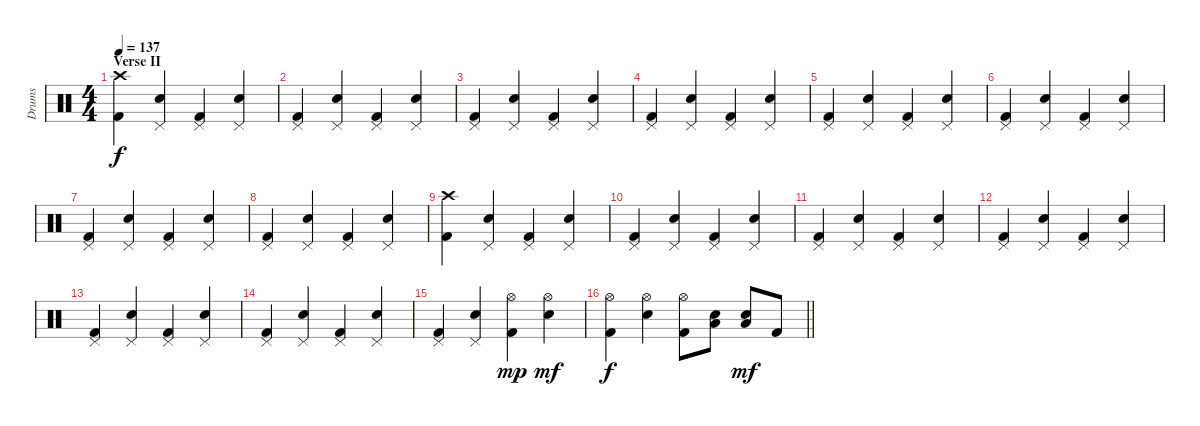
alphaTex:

\track ("Drums" "Drums") {instrument percussion}
\staff {score}
\articulation defaults
\ts (4 4)
\section ("" "Verse II")
\tempo 137
\clef neutral
\ks c
("Crash high (hit)" "Kick (hit) 2").4{dy f} ("Pedal Hi-Hat (hit)" "Electric Snare (hit)").4 ("Pedal Hi-Hat (hit)" "Kick (hit) 2").4 ("Pedal Hi-Hat (hit)" "Electric Snare (hit)").4 |
("Pedal Hi-Hat (hit)" "Kick (hit) 2").4 ("Pedal Hi-Hat (hit)" "Electric Snare (hit)").4 ("Pedal Hi-Hat (hit)" "Kick (hit) 2").4 ("Pedal Hi-Hat (hit)" "Electric Snare (hit)").4 |
("Pedal Hi-Hat (hit)" "Kick (hit) 2").4 ("Pedal Hi-Hat (hit)" "Electric Snare (hit)").4 ("Pedal Hi-Hat (hit)" "Kick (hit) 2").4 ("Pedal Hi-Hat (hit)" "Electric Snare (hit)").4 |
("Pedal Hi-Hat (hit)" "Kick (hit) 2").4 ("Pedal Hi-Hat (hit)" "Electric Snare (hit)").4 ("Pedal Hi-Hat (hit)" "Kick (hit) 2").4 ("Pedal Hi-Hat (hit)" "Electric Snare (hit)").4 |
("Pedal Hi-Hat (hit)" "Kick (hit) 2").4 ("Pedal Hi-Hat (hit)" "Electric Snare (hit)").4 ("Pedal Hi-Hat (hit)" "Kick (hit) 2").4 ("Pedal Hi-Hat (hit)" "Electric Snare (hit)").4 |
("Pedal Hi-Hat (hit)" "Kick (hit) 2").4 ("Pedal Hi-Hat (hit)" "Electric Snare (hit)").4 ("Pedal Hi-Hat (hit)" "Kick (hit) 2").4 ("Pedal Hi-Hat (hit)" "Electric Snare (hit)").4 |
("Pedal Hi-Hat (hit)" "Kick (hit) 2").4 ("Pedal Hi-Hat (hit)" "Electric Snare (hit)").4 ("Pedal Hi-Hat (hit)" "Kick (hit) 2").4 ("Pedal Hi-Hat (hit)" "Electric Snare (hit)").4 |
("Pedal Hi-Hat (hit)" "Kick (hit) 2").4 ("Pedal Hi-Hat (hit)" "Electric Snare (hit)").4 ("Pedal Hi-Hat (hit)" "Kick (hit) 2").4 ("Pedal Hi-Hat (hit)" "Electric Snare (hit)").4 |
("Crash high (hit)" "Kick (hit) 2").4 ("Pedal Hi-Hat (hit)" "Electric Snare (hit)").4 ("Pedal Hi-Hat (hit)" "Kick (hit) 2").4 ("Pedal Hi-Hat (hit)" "Electric Snare (hit)").4 |
("Pedal Hi-Hat (hit)" "Kick (hit) 2").4 ("Pedal Hi-Hat (hit)" "Electric Snare (hit)").4 ("Pedal Hi-Hat (hit)" "Kick (hit) 2").4 ("Pedal Hi-Hat (hit)" "Electric Snare (hit)").4 |
("Pedal Hi-Hat (hit)" "Kick (hit) 2").4 ("Pedal Hi-Hat (hit)" "Electric Snare (hit)").4 ("Pedal Hi-Hat (hit)" "Kick (hit) 2").4 ("Pedal Hi-Hat (hit)" "Electric Snare (hit)").4 |
("Pedal Hi-Hat (hit)" "Kick (hit) 2").4 ("Pedal Hi-Hat (hit)" "Electric Snare (hit)").4 ("Pedal Hi-Hat (hit)" "Kick (hit) 2").4 ("Pedal Hi-Hat (hit)" "Electric Snare (hit)").4 |
("Pedal Hi-Hat (hit)" "Kick (hit) 2").4 ("Pedal Hi-Hat (hit)" "Electric Snare (hit)").4 ("Pedal Hi-Hat (hit)" "Kick (hit) 2").4 ("Pedal Hi-Hat (hit)" "Electric Snare (hit)").4 |
("Pedal Hi-Hat (hit)" "Kick (hit) 2").4 ("Pedal Hi-Hat (hit)" "Electric Snare (hit)").4 ("Pedal Hi-Hat (hit)" "Kick (hit) 2").4 ("Pedal Hi-Hat (hit)" "Electric Snare (hit)").4 |
("Pedal Hi-Hat (hit)" "Kick (hit) 2").4 ("Pedal Hi-Hat (hit)" "Electric Snare (hit)").4 ("Hi-Hat (open)" "Kick (hit) 2").4{dy mp} ("Hi-Hat (open)" "Electric Snare (hit)").4{dy mf} |
\barLineRight lightlight
("Hi-Hat (open)" "Kick (hit) 2").4{dy f} ("Hi-Hat (open)" "Electric Snare (hit)").4 ("Hi-Hat (open)" "Kick (hit) 2").8 ("Low Floor Tom (hit)" "Electric Snare (hit)").8 ("Low Floor Tom (hit)" "Electric Snare (hit)").8{dy mf} "Kick (hit) 2".8
